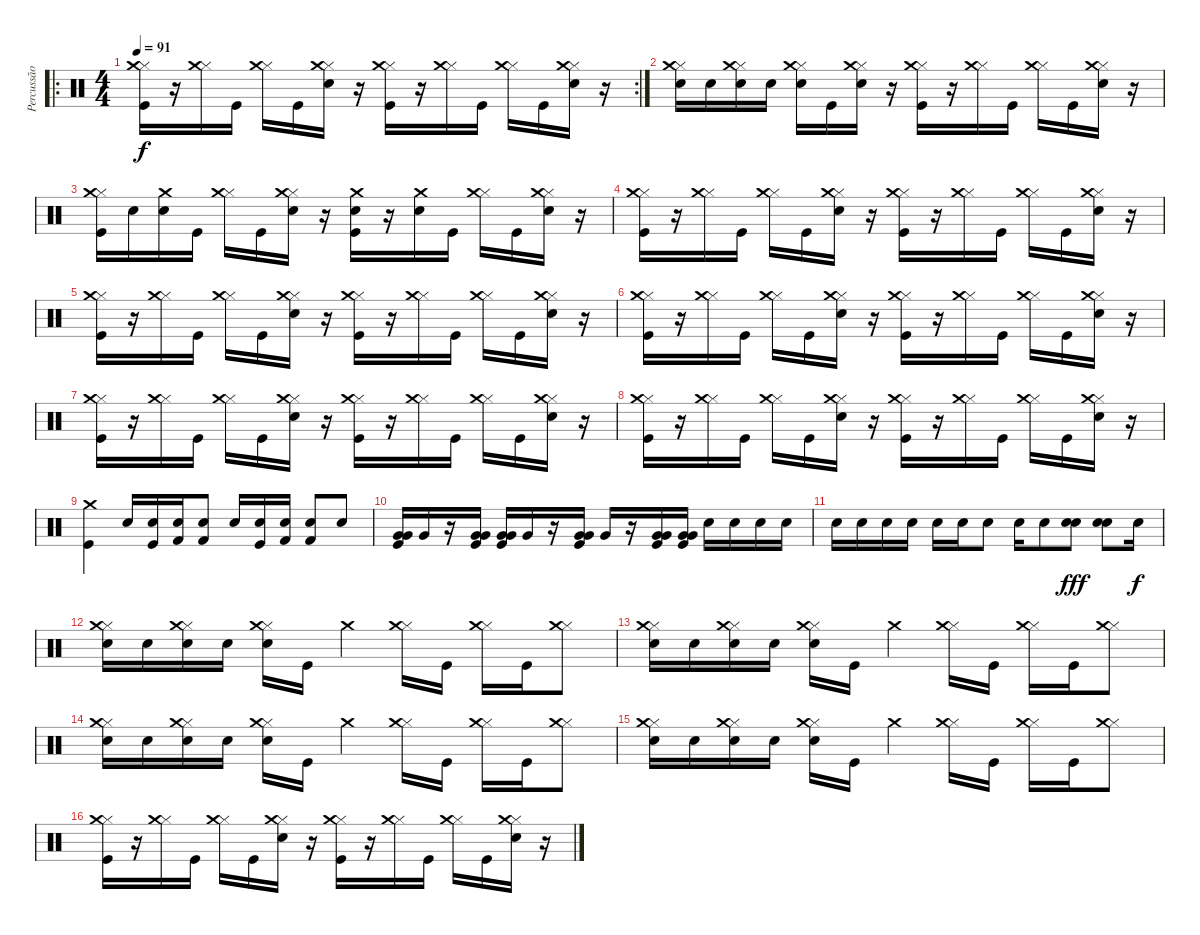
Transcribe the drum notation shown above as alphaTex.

\track ("Percussão" "Percussão") {instrument percussion}
\staff {score}
\articulation defaults
\ro
\rc 2
\ts (4 4)
\tempo 91
\clef neutral
\ks c
("Kick (hit)" "Hi-Hat (closed)" "Crash medium (hit)").16{dy f} r.16 ("Hi-Hat (closed)" "Crash medium (hit)").16 "Kick (hit)".16 ("Hi-Hat (closed)" "Crash medium (hit)").16 "Kick (hit)".16 ("Electric Snare (hit)" "Hi-Hat (closed)" "Crash medium (hit)").16 r.16 ("Kick (hit)" "Hi-Hat (closed)" "Crash medium (hit)").16 r.16 ("Hi-Hat (closed)" "Crash medium (hit)").16 "Kick (hit)".16 ("Hi-Hat (closed)" "Crash medium (hit)").16 "Kick (hit)".16 ("Electric Snare (hit)" "Hi-Hat (closed)" "Crash medium (hit)").16 r.16 |
("Electric Snare (hit)" "Hi-Hat (closed)" "Crash medium (hit)").16 "Electric Snare (hit)".16 ("Electric Snare (hit)" "Hi-Hat (closed)" "Crash medium (hit)").16 "Electric Snare (hit)".16 ("Electric Snare (hit)" "Hi-Hat (closed)" "Crash medium (hit)").16 "Kick (hit)".16 ("Electric Snare (hit)" "Hi-Hat (closed)" "Crash medium (hit)").16 r.16 ("Kick (hit)" "Hi-Hat (closed)" "Crash medium (hit)").16 r.16 ("Hi-Hat (closed)" "Crash medium (hit)").16 "Kick (hit)".16 ("Hi-Hat (closed)" "Crash medium (hit)").16 "Kick (hit)".16 ("Electric Snare (hit)" "Hi-Hat (closed)" "Crash medium (hit)").16 r.16 |
("Kick (hit)" "Hi-Hat (closed)" "Crash medium (hit)").16 "Electric Snare (hit)".16 ("Electric Snare (hit)" "Crash medium (hit)").16 "Kick (hit)".16 ("Hi-Hat (closed)" "Crash medium (hit)").16 "Kick (hit)".16 ("Electric Snare (hit)" "Hi-Hat (closed)" "Crash medium (hit)").16 r.16 ("Kick (hit)" "Electric Snare (hit)" "Crash medium (hit)").16 r.16 ("Electric Snare (hit)" "Crash medium (hit)").16 "Kick (hit)".16 ("Hi-Hat (closed)" "Crash medium (hit)").16 "Kick (hit)".16 ("Electric Snare (hit)" "Hi-Hat (closed)" "Crash medium (hit)").16 r.16 |
("Kick (hit)" "Hi-Hat (closed)" "Crash medium (hit)").16 r.16 ("Hi-Hat (closed)" "Crash medium (hit)").16 "Kick (hit)".16 ("Hi-Hat (closed)" "Crash medium (hit)").16 "Kick (hit)".16 ("Electric Snare (hit)" "Hi-Hat (closed)" "Crash medium (hit)").16 r.16 ("Kick (hit)" "Hi-Hat (closed)" "Crash medium (hit)").16 r.16 ("Hi-Hat (closed)" "Crash medium (hit)").16 "Kick (hit)".16 ("Hi-Hat (closed)" "Crash medium (hit)").16 "Kick (hit)".16 ("Electric Snare (hit)" "Hi-Hat (closed)" "Crash medium (hit)").16 r.16 |
("Kick (hit)" "Hi-Hat (closed)" "Crash medium (hit)").16 r.16 ("Hi-Hat (closed)" "Crash medium (hit)").16 "Kick (hit)".16 ("Hi-Hat (closed)" "Crash medium (hit)").16 "Kick (hit)".16 ("Electric Snare (hit)" "Hi-Hat (closed)" "Crash medium (hit)").16 r.16 ("Kick (hit)" "Hi-Hat (closed)" "Crash medium (hit)").16 r.16 ("Hi-Hat (closed)" "Crash medium (hit)").16 "Kick (hit)".16 ("Hi-Hat (closed)" "Crash medium (hit)").16 "Kick (hit)".16 ("Electric Snare (hit)" "Hi-Hat (closed)" "Crash medium (hit)").16 r.16 |
("Kick (hit)" "Hi-Hat (closed)" "Crash medium (hit)").16 r.16 ("Hi-Hat (closed)" "Crash medium (hit)").16 "Kick (hit)".16 ("Hi-Hat (closed)" "Crash medium (hit)").16 "Kick (hit)".16 ("Electric Snare (hit)" "Hi-Hat (closed)" "Crash medium (hit)").16 r.16 ("Kick (hit)" "Hi-Hat (closed)" "Crash medium (hit)").16 r.16 ("Hi-Hat (closed)" "Crash medium (hit)").16 "Kick (hit)".16 ("Hi-Hat (closed)" "Crash medium (hit)").16 "Kick (hit)".16 ("Electric Snare (hit)" "Hi-Hat (closed)" "Crash medium (hit)").16 r.16 |
("Kick (hit)" "Hi-Hat (closed)" "Crash medium (hit)").16 r.16 ("Hi-Hat (closed)" "Crash medium (hit)").16 "Kick (hit)".16 ("Hi-Hat (closed)" "Crash medium (hit)").16 "Kick (hit)".16 ("Electric Snare (hit)" "Hi-Hat (closed)" "Crash medium (hit)").16 r.16 ("Kick (hit)" "Hi-Hat (closed)" "Crash medium (hit)").16 r.16 ("Hi-Hat (closed)" "Crash medium (hit)").16 "Kick (hit)".16 ("Hi-Hat (closed)" "Crash medium (hit)").16 "Kick (hit)".16 ("Electric Snare (hit)" "Hi-Hat (closed)" "Crash medium (hit)").16 r.16 |
("Kick (hit)" "Hi-Hat (closed)" "Crash medium (hit)").16 r.16 ("Hi-Hat (closed)" "Crash medium (hit)").16 "Kick (hit)".16 ("Hi-Hat (closed)" "Crash medium (hit)").16 "Kick (hit)".16 ("Electric Snare (hit)" "Hi-Hat (closed)" "Crash medium (hit)").16 r.16 ("Kick (hit)" "Hi-Hat (closed)" "Crash medium (hit)").16 r.16 ("Hi-Hat (closed)" "Crash medium (hit)").16 "Kick (hit)".16 ("Hi-Hat (closed)" "Crash medium (hit)").16 "Kick (hit)".16 ("Electric Snare (hit)" "Hi-Hat (closed)" "Crash medium (hit)").16 r.16 |
("Crash medium (hit)" "Kick (hit)").4 "Electric Snare (hit)".16 ("Electric Snare (hit)" "Kick (hit)").16 ("Electric Snare (hit)" "Kick (hit) 2").16 ("Electric Snare (hit)" "Kick (hit) 2").8 "Electric Snare (hit)".16 ("Electric Snare (hit)" "Kick (hit)").16 ("Electric Snare (hit)" "Kick (hit) 2").16 ("Electric Snare (hit)" "Kick (hit) 2").8 "Electric Snare (hit)".8 |
("Very Low Tom (hit)" "Very Low Tom (hit)" "Kick (hit)").16 "Very Low Tom (hit)".16 r.16 ("Very Low Tom (hit)" "Very Low Tom (hit)" "Kick (hit)").16 ("Very Low Tom (hit)" "Very Low Tom (hit)" "Kick (hit)").16 "Very Low Tom (hit)".16 r.16 ("Very Low Tom (hit)" "Very Low Tom (hit)" "Kick (hit)").16 "Very Low Tom (hit)".16 r.16 ("Very Low Tom (hit)" "Very Low Tom (hit)" "Kick (hit)").16 ("Very Low Tom (hit)" "Very Low Tom (hit)" "Kick (hit)").16{volume 7} "Electric Snare (hit)".16{volume 16} "Electric Snare (hit)".16 "Electric Snare (hit)".16 "Electric Snare (hit)".16 |
"Electric Snare (hit)".16 "Electric Snare (hit)".16 "Electric Snare (hit)".16 "Electric Snare (hit)".16 "Electric Snare (hit)".16 "Electric Snare (hit)".16 "Electric Snare (hit)".8 "Electric Snare (hit)".16 "Electric Snare (hit)".8 ("Electric Snare (hit)" "Electric Snare (hit)").8{dy fff volume 16} ("Electric Snare (hit)" "Electric Snare (hit)").8 "Electric Snare (hit)".16{dy f} |
("Electric Snare (hit)" "Hi-Hat (closed)" "Crash medium (hit)").16 "Electric Snare (hit)".16 ("Electric Snare (hit)" "Hi-Hat (closed)" "Crash medium (hit)").16 "Electric Snare (hit)".16 ("Electric Snare (hit)" "Hi-Hat (closed)" "Crash medium (hit)").16 "Kick (hit)".16 "Crash medium (hit)".4 ("Hi-Hat (closed)" "Crash medium (hit)").16 "Kick (hit)".16 ("Hi-Hat (closed)" "Crash medium (hit)").16 "Kick (hit)".16 ("Hi-Hat (closed)" "Crash medium (hit)").8 |
("Electric Snare (hit)" "Hi-Hat (closed)" "Crash medium (hit)").16 "Electric Snare (hit)".16 ("Electric Snare (hit)" "Hi-Hat (closed)" "Crash medium (hit)").16 "Electric Snare (hit)".16 ("Electric Snare (hit)" "Hi-Hat (closed)" "Crash medium (hit)").16 "Kick (hit)".16 "Crash medium (hit)".4 ("Hi-Hat (closed)" "Crash medium (hit)").16 "Kick (hit)".16 ("Hi-Hat (closed)" "Crash medium (hit)").16 "Kick (hit)".16 ("Hi-Hat (closed)" "Crash medium (hit)").8 |
("Electric Snare (hit)" "Hi-Hat (closed)" "Crash medium (hit)").16 "Electric Snare (hit)".16 ("Electric Snare (hit)" "Hi-Hat (closed)" "Crash medium (hit)").16 "Electric Snare (hit)".16 ("Electric Snare (hit)" "Hi-Hat (closed)" "Crash medium (hit)").16 "Kick (hit)".16 "Crash medium (hit)".4 ("Hi-Hat (closed)" "Crash medium (hit)").16 "Kick (hit)".16 ("Hi-Hat (closed)" "Crash medium (hit)").16 "Kick (hit)".16 ("Hi-Hat (closed)" "Crash medium (hit)").8 |
("Electric Snare (hit)" "Hi-Hat (closed)" "Crash medium (hit)").16 "Electric Snare (hit)".16 ("Electric Snare (hit)" "Hi-Hat (closed)" "Crash medium (hit)").16 "Electric Snare (hit)".16 ("Electric Snare (hit)" "Hi-Hat (closed)" "Crash medium (hit)").16 "Kick (hit)".16 "Crash medium (hit)".4 ("Hi-Hat (closed)" "Crash medium (hit)").16 "Kick (hit)".16 ("Hi-Hat (closed)" "Crash medium (hit)").16 "Kick (hit)".16 ("Hi-Hat (closed)" "Crash medium (hit)").8 |
("Kick (hit)" "Hi-Hat (closed)" "Crash medium (hit)").16 r.16 ("Hi-Hat (closed)" "Crash medium (hit)").16 "Kick (hit)".16 ("Hi-Hat (closed)" "Crash medium (hit)").16 "Kick (hit)".16 ("Electric Snare (hit)" "Hi-Hat (closed)" "Crash medium (hit)").16 r.16 ("Kick (hit)" "Hi-Hat (closed)" "Crash medium (hit)").16 r.16 ("Hi-Hat (closed)" "Crash medium (hit)").16 "Kick (hit)".16 ("Hi-Hat (closed)" "Crash medium (hit)").16 "Kick (hit)".16 ("Electric Snare (hit)" "Hi-Hat (closed)" "Crash medium (hit)").16 r.16
